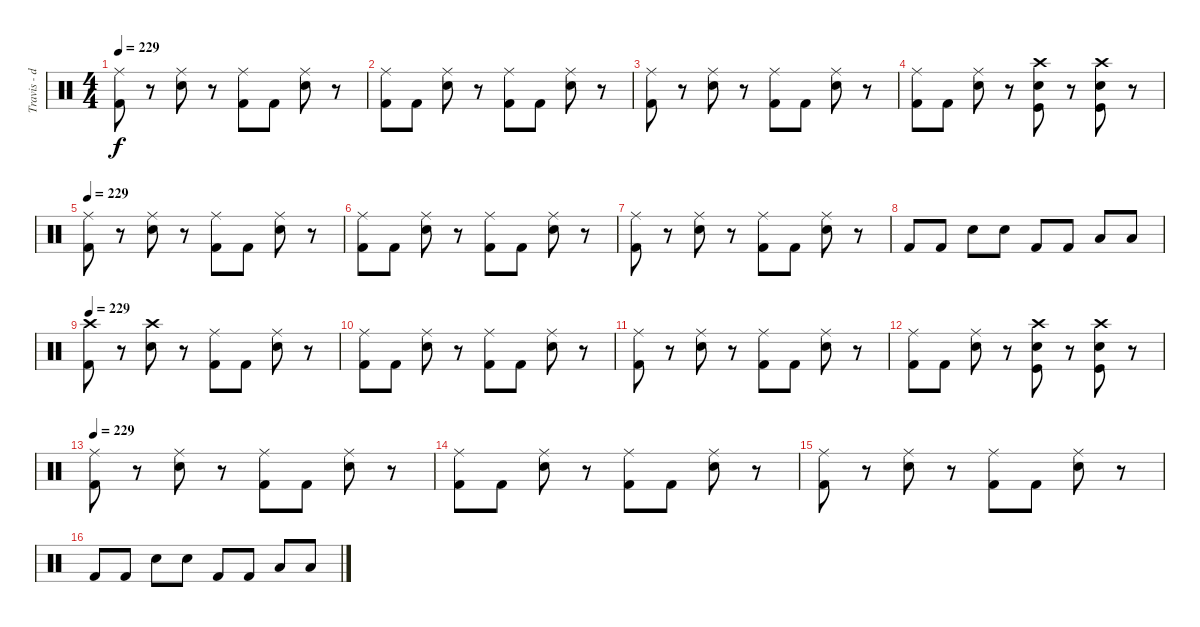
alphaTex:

\track ("Travis - drums" "Travis - d") {instrument percussion}
\staff {score}
\articulation defaults
\ts (4 4)
\tempo 229
\clef neutral
\ks c
("Ride (middle)" "Kick (hit) 2").8{dy f} r.8 ("Electric Snare (hit)" "Ride (middle)").8 r.8 ("Ride (middle)" "Kick (hit) 2").8 "Kick (hit) 2".8 ("Ride (middle)" "Electric Snare (hit)").8 r.8 |
("Kick (hit) 2" "Ride (middle)").8 "Kick (hit) 2".8 ("Ride (middle)" "Electric Snare (hit)").8 r.8 ("Ride (middle)" "Kick (hit) 2").8 "Kick (hit) 2".8 ("Electric Snare (hit)" "Ride (middle)").8 r.8 |
("Ride (middle)" "Kick (hit) 2").8 r.8 ("Electric Snare (hit)" "Ride (middle)").8 r.8 ("Kick (hit) 2" "Ride (middle)").8 "Kick (hit) 2".8 ("Ride (middle)" "Electric Snare (hit)").8 r.8 |
("Kick (hit) 2" "Ride (middle)").8 "Kick (hit) 2".8 ("Ride (middle)" "Electric Snare (hit)").8 r.8 ("Kick (hit)" "Electric Snare (hit)" "Crash high (hit)").8 r.8 ("Electric Snare (hit)" "Kick (hit)" "Crash high (hit)").8 r.8 |
\tempo 229
("Ride (middle)" "Kick (hit) 2").8 r.8 ("Ride (middle)" "Electric Snare (hit)").8 r.8 ("Ride (middle)" "Kick (hit) 2").8 "Kick (hit) 2".8 ("Electric Snare (hit)" "Ride (middle)").8 r.8 |
("Ride (middle)" "Kick (hit) 2").8 "Kick (hit) 2".8 ("Ride (middle)" "Electric Snare (hit)").8 r.8 ("Kick (hit) 2" "Ride (middle)").8 "Kick (hit) 2".8 ("Ride (middle)" "Electric Snare (hit)").8 r.8 |
("Ride (middle)" "Kick (hit) 2").8 r.8 ("Ride (middle)" "Electric Snare (hit)").8 r.8 ("Ride (middle)" "Kick (hit) 2").8 "Kick (hit) 2".8 ("Ride (middle)" "Electric Snare (hit)").8 r.8 |
"Kick (hit) 2".8 "Kick (hit) 2".8 "Electric Snare (hit)".8 "Electric Snare (hit)".8 "Kick (hit) 2".8 "Kick (hit) 2".8 "Low Floor Tom (hit)".8 "Low Floor Tom (hit)".8 |
\tempo 229
("Crash high (hit)" "Kick (hit) 2").8 r.8 ("Electric Snare (hit)" "Crash high (hit)").8 r.8 ("Kick (hit) 2" "Ride (middle)").8 "Kick (hit) 2".8 ("Electric Snare (hit)" "Ride (middle)").8 r.8 |
("Kick (hit) 2" "Ride (middle)").8 "Kick (hit) 2".8 ("Electric Snare (hit)" "Ride (middle)").8 r.8 ("Kick (hit) 2" "Ride (middle)").8 "Kick (hit) 2".8 ("Ride (middle)" "Electric Snare (hit)").8 r.8 |
("Ride (middle)" "Kick (hit) 2").8 r.8 ("Ride (middle)" "Electric Snare (hit)").8 r.8 ("Kick (hit) 2" "Ride (middle)").8 "Kick (hit) 2".8 ("Electric Snare (hit)" "Ride (middle)").8 r.8 |
("Ride (middle)" "Kick (hit) 2").8 "Kick (hit) 2".8 ("Ride (middle)" "Electric Snare (hit)").8 r.8 ("Kick (hit)" "Electric Snare (hit)" "Crash high (hit)").8 r.8 ("Kick (hit)" "Crash high (hit)" "Electric Snare (hit)").8 r.8 |
\tempo 229
("Ride (middle)" "Kick (hit) 2").8 r.8 ("Electric Snare (hit)" "Ride (middle)").8 r.8 ("Ride (middle)" "Kick (hit) 2").8 "Kick (hit) 2".8 ("Electric Snare (hit)" "Ride (middle)").8 r.8 |
("Kick (hit) 2" "Ride (middle)").8 "Kick (hit) 2".8 ("Electric Snare (hit)" "Ride (middle)").8 r.8 ("Kick (hit) 2" "Ride (middle)").8 "Kick (hit) 2".8 ("Ride (middle)" "Electric Snare (hit)").8 r.8 |
("Ride (middle)" "Kick (hit) 2").8 r.8 ("Ride (middle)" "Electric Snare (hit)").8 r.8 ("Ride (middle)" "Kick (hit) 2").8 "Kick (hit) 2".8 ("Electric Snare (hit)" "Ride (middle)").8 r.8 |
"Kick (hit) 2".8 "Kick (hit) 2".8 "Electric Snare (hit)".8 "Electric Snare (hit)".8 "Kick (hit) 2".8 "Kick (hit) 2".8 "Low Floor Tom (hit)".8 "Low Floor Tom (hit)".8
